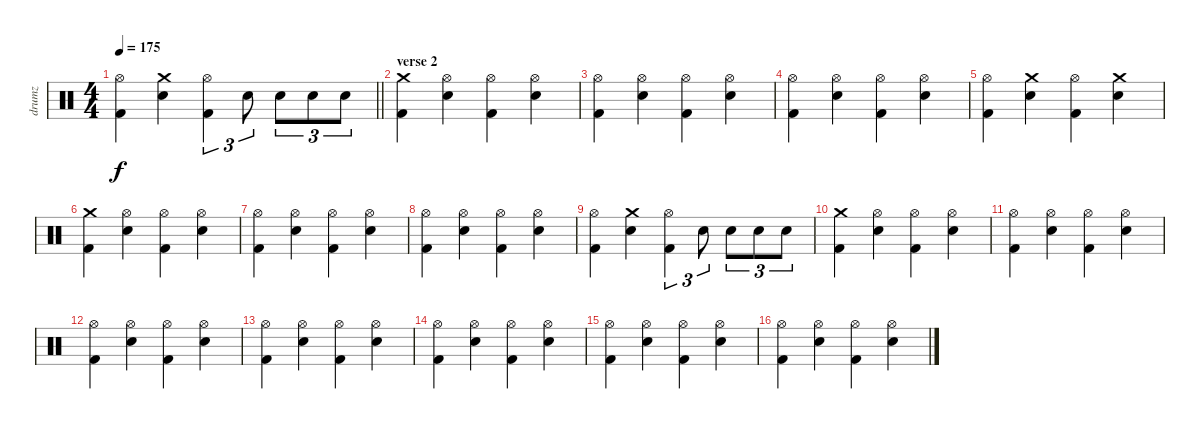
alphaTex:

\track ("drumz" "drumz") {instrument percussion}
\staff {score}
\articulation defaults
\ts (4 4)
\tempo 175
\clef neutral
\barLineRight lightlight
\ks c
("Hi-Hat (open)" "Kick (hit) 2").4{dy f} ("Crash medium (hit)" "Electric Snare (hit)").4 ("Hi-Hat (open)" "Kick (hit) 2").4{tu (3 2)} "Electric Snare (hit)".8{tu (3 2)} "Electric Snare (hit)".8{tu (3 2)} "Electric Snare (hit)".8{tu (3 2)} "Electric Snare (hit)".8{tu (3 2)} |
\section ("" "verse 2")
("Crash medium (hit)" "Kick (hit) 2").4 ("Hi-Hat (open)" "Electric Snare (hit)").4 ("Hi-Hat (open)" "Kick (hit) 2").4 ("Hi-Hat (open)" "Electric Snare (hit)").4 |
("Hi-Hat (open)" "Kick (hit) 2").4 ("Hi-Hat (open)" "Electric Snare (hit)").4 ("Hi-Hat (open)" "Kick (hit) 2").4 ("Hi-Hat (open)" "Electric Snare (hit)").4 |
("Hi-Hat (open)" "Kick (hit) 2").4 ("Hi-Hat (open)" "Electric Snare (hit)").4 ("Hi-Hat (open)" "Kick (hit) 2").4 ("Hi-Hat (open)" "Electric Snare (hit)").4 |
("Hi-Hat (open)" "Kick (hit) 2").4 ("Crash medium (hit)" "Electric Snare (hit)").4 ("Hi-Hat (open)" "Kick (hit) 2").4 ("Crash medium (hit)" "Electric Snare (hit)").4 |
("Crash medium (hit)" "Kick (hit) 2").4 ("Hi-Hat (open)" "Electric Snare (hit)").4 ("Hi-Hat (open)" "Kick (hit) 2").4 ("Hi-Hat (open)" "Electric Snare (hit)").4 |
("Hi-Hat (open)" "Kick (hit) 2").4 ("Hi-Hat (open)" "Electric Snare (hit)").4 ("Hi-Hat (open)" "Kick (hit) 2").4 ("Hi-Hat (open)" "Electric Snare (hit)").4 |
("Hi-Hat (open)" "Kick (hit) 2").4 ("Hi-Hat (open)" "Electric Snare (hit)").4 ("Hi-Hat (open)" "Kick (hit) 2").4 ("Hi-Hat (open)" "Electric Snare (hit)").4 |
("Hi-Hat (open)" "Kick (hit) 2").4 ("Crash medium (hit)" "Electric Snare (hit)").4 ("Hi-Hat (open)" "Kick (hit) 2").4{tu (3 2)} "Electric Snare (hit)".8{tu (3 2)} "Electric Snare (hit)".8{tu (3 2)} "Electric Snare (hit)".8{tu (3 2)} "Electric Snare (hit)".8{tu (3 2)} |
("Crash medium (hit)" "Kick (hit) 2").4 ("Hi-Hat (open)" "Electric Snare (hit)").4 ("Hi-Hat (open)" "Kick (hit) 2").4 ("Hi-Hat (open)" "Electric Snare (hit)").4 |
("Hi-Hat (open)" "Kick (hit) 2").4 ("Hi-Hat (open)" "Electric Snare (hit)").4 ("Hi-Hat (open)" "Kick (hit) 2").4 ("Hi-Hat (open)" "Electric Snare (hit)").4 |
("Hi-Hat (open)" "Kick (hit) 2").4 ("Hi-Hat (open)" "Electric Snare (hit)").4 ("Hi-Hat (open)" "Kick (hit) 2").4 ("Hi-Hat (open)" "Electric Snare (hit)").4 |
("Hi-Hat (open)" "Kick (hit) 2").4 ("Hi-Hat (open)" "Electric Snare (hit)").4 ("Hi-Hat (open)" "Kick (hit) 2").4 ("Hi-Hat (open)" "Electric Snare (hit)").4 |
("Hi-Hat (open)" "Kick (hit) 2").4 ("Hi-Hat (open)" "Electric Snare (hit)").4 ("Hi-Hat (open)" "Kick (hit) 2").4 ("Hi-Hat (open)" "Electric Snare (hit)").4 |
("Hi-Hat (open)" "Kick (hit) 2").4 ("Hi-Hat (open)" "Electric Snare (hit)").4 ("Hi-Hat (open)" "Kick (hit) 2").4 ("Hi-Hat (open)" "Electric Snare (hit)").4 |
("Hi-Hat (open)" "Kick (hit) 2").4 ("Hi-Hat (open)" "Electric Snare (hit)").4 ("Hi-Hat (open)" "Kick (hit) 2").4 ("Hi-Hat (open)" "Electric Snare (hit)").4
